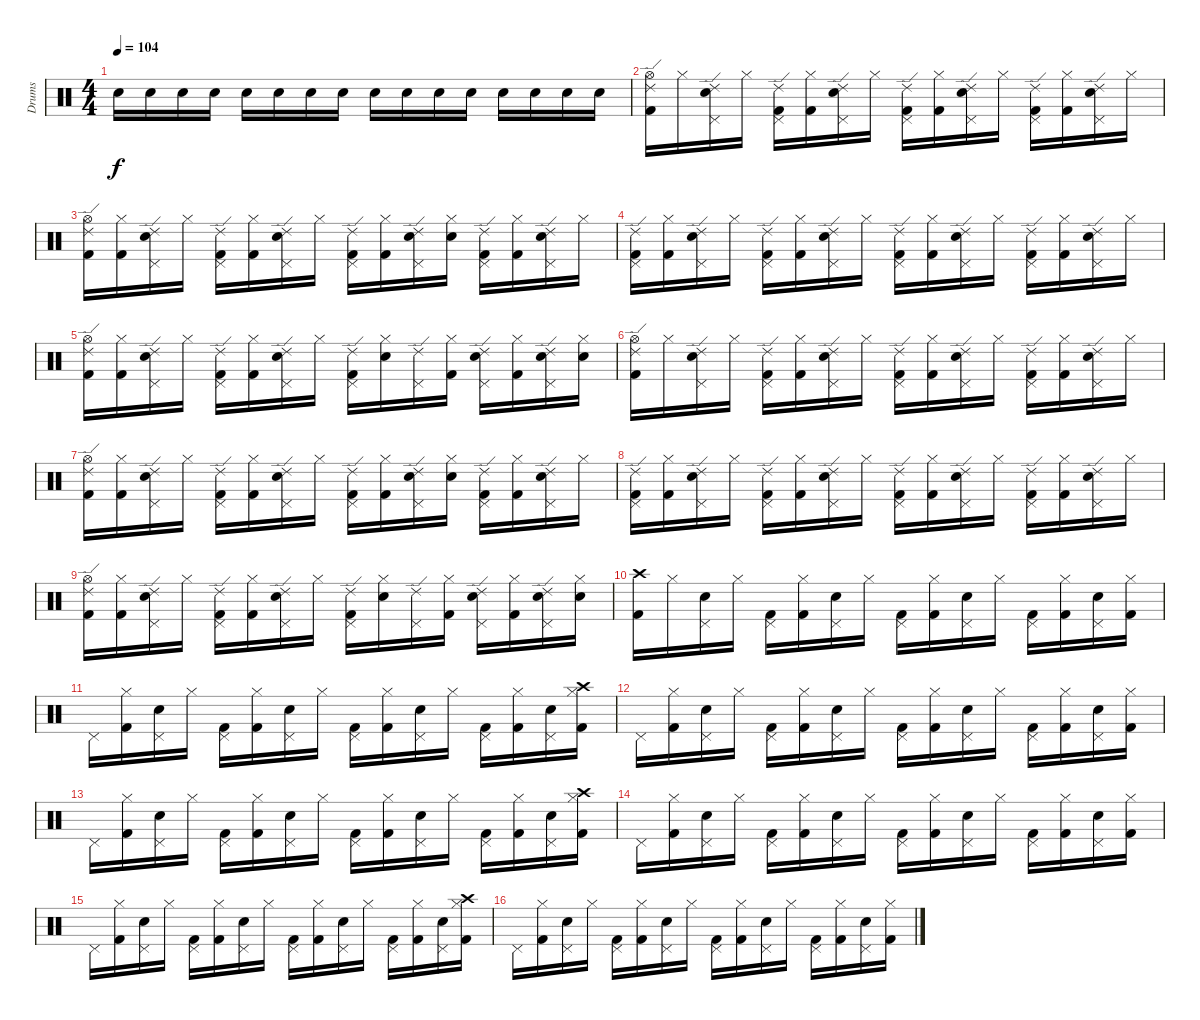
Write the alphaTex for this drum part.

\track ("Drums" "Drums") {instrument percussion}
\staff {score}
\articulation defaults
\ts (4 4)
\tempo 104
\clef neutral
\ks c "Snare (hit) 2".16{dy f} "Snare (hit) 2".16 "Snare (hit) 2".16 "Snare (hit) 2".16 "Snare (hit) 2".16 "Snare (hit) 2".16 "Snare (hit) 2".16 "Snare (hit) 2".16 "Snare (hit) 2".16 "Snare (hit) 2".16 "Snare (hit) 2".16 "Snare (hit) 2".16 "Snare (hit) 2".16 "Snare (hit) 2".16 "Snare (hit) 2".16 "Snare (hit) 2".16
|
("Kick (hit) 2" "Hi-Hat (open)" "Ride (edge) 2").16 "Hi-Hat (closed)".16 ("Snare (hit) 2" "Pedal Hi-Hat (hit)" "Ride (edge) 2").16 "Hi-Hat (closed)".16 ("Kick (hit) 2" "Pedal Hi-Hat (hit)" "Ride (edge) 2").16 ("Kick (hit) 2" "Hi-Hat (closed)").16 ("Snare (hit) 2" "Pedal Hi-Hat (hit)" "Ride (edge) 2").16 "Hi-Hat (closed)".16 ("Kick (hit) 2" "Pedal Hi-Hat (hit)" "Ride (edge) 2").16 ("Kick (hit) 2" "Hi-Hat (closed)").16 ("Snare (hit) 2" "Pedal Hi-Hat (hit)" "Ride (edge) 2").16 "Hi-Hat (closed)".16 ("Kick (hit) 2" "Pedal Hi-Hat (hit)" "Ride (edge) 2").16 ("Kick (hit) 2" "Hi-Hat (closed)").16 ("Snare (hit) 2" "Pedal Hi-Hat (hit)" "Ride (edge) 2").16 "Hi-Hat (closed)".16 |
("Kick (hit) 2" "Hi-Hat (open)" "Ride (edge) 2").16 ("Kick (hit) 2" "Hi-Hat (closed)").16 ("Snare (hit) 2" "Pedal Hi-Hat (hit)" "Ride (edge) 2").16 "Hi-Hat (closed)".16 ("Kick (hit) 2" "Pedal Hi-Hat (hit)" "Ride (edge) 2").16 ("Kick (hit) 2" "Hi-Hat (closed)").16 ("Snare (hit) 2" "Pedal Hi-Hat (hit)" "Ride (edge) 2").16 "Hi-Hat (closed)".16 ("Kick (hit) 2" "Pedal Hi-Hat (hit)" "Ride (edge) 2").16 ("Kick (hit) 2" "Hi-Hat (closed)").16 ("Snare (hit) 2" "Pedal Hi-Hat (hit)" "Ride (edge) 2").16 ("Snare (hit) 2" "Hi-Hat (closed)").16 ("Kick (hit) 2" "Pedal Hi-Hat (hit)" "Ride (edge) 2").16 ("Kick (hit) 2" "Hi-Hat (closed)").16 ("Snare (hit) 2" "Pedal Hi-Hat (hit)" "Ride (edge) 2").16 "Hi-Hat (closed)".16 |
("Kick (hit) 2" "Pedal Hi-Hat (hit)" "Ride (edge) 2").16 ("Kick (hit) 2" "Hi-Hat (closed)").16 ("Snare (hit) 2" "Pedal Hi-Hat (hit)" "Ride (edge) 2").16 "Hi-Hat (closed)".16 ("Kick (hit) 2" "Pedal Hi-Hat (hit)" "Ride (edge) 2").16 ("Kick (hit) 2" "Hi-Hat (closed)").16 ("Snare (hit) 2" "Pedal Hi-Hat (hit)" "Ride (edge) 2").16 "Hi-Hat (closed)".16 ("Kick (hit) 2" "Pedal Hi-Hat (hit)" "Ride (edge) 2").16 ("Kick (hit) 2" "Hi-Hat (closed)").16 ("Snare (hit) 2" "Pedal Hi-Hat (hit)" "Ride (edge) 2").16 "Hi-Hat (closed)".16 ("Kick (hit) 2" "Pedal Hi-Hat (hit)" "Ride (edge) 2").16 ("Kick (hit) 2" "Hi-Hat (closed)").16 ("Snare (hit) 2" "Pedal Hi-Hat (hit)" "Ride (edge) 2").16 "Hi-Hat (closed)".16 |
("Kick (hit) 2" "Hi-Hat (open)" "Ride (edge) 2").16 ("Kick (hit) 2" "Hi-Hat (closed)").16 ("Snare (hit) 2" "Pedal Hi-Hat (hit)" "Ride (edge) 2").16 "Hi-Hat (closed)".16 ("Kick (hit) 2" "Pedal Hi-Hat (hit)" "Ride (edge) 2").16 ("Kick (hit) 2" "Hi-Hat (closed)").16 ("Snare (hit) 2" "Pedal Hi-Hat (hit)" "Ride (edge) 2").16 "Hi-Hat (closed)".16 ("Kick (hit) 2" "Pedal Hi-Hat (hit)" "Ride (edge) 2").16 ("Snare (hit) 2" "Hi-Hat (closed)").16 ("Pedal Hi-Hat (hit)" "Ride (edge) 2").16 ("Kick (hit) 2" "Hi-Hat (closed)").16 ("Snare (hit) 2" "Pedal Hi-Hat (hit)" "Ride (edge) 2").16 ("Kick (hit) 2" "Hi-Hat (closed)").16 ("Snare (hit) 2" "Pedal Hi-Hat (hit)" "Ride (edge) 2").16 ("Snare (hit) 2" "Hi-Hat (closed)").16 |
("Kick (hit) 2" "Hi-Hat (open)" "Ride (edge) 2").16 "Hi-Hat (closed)".16 ("Snare (hit) 2" "Pedal Hi-Hat (hit)" "Ride (edge) 2").16 "Hi-Hat (closed)".16 ("Kick (hit) 2" "Pedal Hi-Hat (hit)" "Ride (edge) 2").16 ("Kick (hit) 2" "Hi-Hat (closed)").16 ("Snare (hit) 2" "Pedal Hi-Hat (hit)" "Ride (edge) 2").16 "Hi-Hat (closed)".16 ("Kick (hit) 2" "Pedal Hi-Hat (hit)" "Ride (edge) 2").16 ("Kick (hit) 2" "Hi-Hat (closed)").16 ("Snare (hit) 2" "Pedal Hi-Hat (hit)" "Ride (edge) 2").16 "Hi-Hat (closed)".16 ("Kick (hit) 2" "Pedal Hi-Hat (hit)" "Ride (edge) 2").16 ("Kick (hit) 2" "Hi-Hat (closed)").16 ("Snare (hit) 2" "Pedal Hi-Hat (hit)" "Ride (edge) 2").16 "Hi-Hat (closed)".16 |
("Kick (hit) 2" "Hi-Hat (open)" "Ride (edge) 2").16 ("Kick (hit) 2" "Hi-Hat (closed)").16 ("Snare (hit) 2" "Pedal Hi-Hat (hit)" "Ride (edge) 2").16 "Hi-Hat (closed)".16 ("Kick (hit) 2" "Pedal Hi-Hat (hit)" "Ride (edge) 2").16 ("Kick (hit) 2" "Hi-Hat (closed)").16 ("Snare (hit) 2" "Pedal Hi-Hat (hit)" "Ride (edge) 2").16 "Hi-Hat (closed)".16 ("Kick (hit) 2" "Pedal Hi-Hat (hit)" "Ride (edge) 2").16 ("Kick (hit) 2" "Hi-Hat (closed)").16 ("Snare (hit) 2" "Pedal Hi-Hat (hit)" "Ride (edge) 2").16 ("Snare (hit) 2" "Hi-Hat (closed)").16 ("Kick (hit) 2" "Pedal Hi-Hat (hit)" "Ride (edge) 2").16 ("Kick (hit) 2" "Hi-Hat (closed)").16 ("Snare (hit) 2" "Pedal Hi-Hat (hit)" "Ride (edge) 2").16 "Hi-Hat (closed)".16 |
("Kick (hit) 2" "Pedal Hi-Hat (hit)" "Ride (edge) 2").16 ("Kick (hit) 2" "Hi-Hat (closed)").16 ("Snare (hit) 2" "Pedal Hi-Hat (hit)" "Ride (edge) 2").16 "Hi-Hat (closed)".16 ("Kick (hit) 2" "Pedal Hi-Hat (hit)" "Ride (edge) 2").16 ("Kick (hit) 2" "Hi-Hat (closed)").16 ("Snare (hit) 2" "Pedal Hi-Hat (hit)" "Ride (edge) 2").16 "Hi-Hat (closed)".16 ("Kick (hit) 2" "Pedal Hi-Hat (hit)" "Ride (edge) 2").16 ("Kick (hit) 2" "Hi-Hat (closed)").16 ("Snare (hit) 2" "Pedal Hi-Hat (hit)" "Ride (edge) 2").16 "Hi-Hat (closed)".16 ("Kick (hit) 2" "Pedal Hi-Hat (hit)" "Ride (edge) 2").16 ("Kick (hit) 2" "Hi-Hat (closed)").16 ("Snare (hit) 2" "Pedal Hi-Hat (hit)" "Ride (edge) 2").16 "Hi-Hat (closed)".16 |
("Kick (hit) 2" "Hi-Hat (open)" "Ride (edge) 2").16 ("Kick (hit) 2" "Hi-Hat (closed)").16 ("Snare (hit) 2" "Pedal Hi-Hat (hit)" "Ride (edge) 2").16 "Hi-Hat (closed)".16 ("Kick (hit) 2" "Pedal Hi-Hat (hit)" "Ride (edge) 2").16 ("Kick (hit) 2" "Hi-Hat (closed)").16 ("Snare (hit) 2" "Pedal Hi-Hat (hit)" "Ride (edge) 2").16 "Hi-Hat (closed)".16 ("Kick (hit) 2" "Pedal Hi-Hat (hit)" "Ride (edge) 2").16 ("Snare (hit) 2" "Hi-Hat (closed)").16 ("Pedal Hi-Hat (hit)" "Ride (edge) 2").16 ("Kick (hit) 2" "Hi-Hat (closed)").16 ("Snare (hit) 2" "Pedal Hi-Hat (hit)" "Ride (edge) 2").16 ("Kick (hit) 2" "Hi-Hat (closed)").16 ("Snare (hit) 2" "Pedal Hi-Hat (hit)" "Ride (edge) 2").16 ("Snare (hit) 2" "Hi-Hat (closed)").16 |
("Kick (hit) 2" "Crash high (hit)").16 "Hi-Hat (closed)".16 ("Snare (hit) 2" "Pedal Hi-Hat (hit)").16 "Hi-Hat (closed)".16 ("Kick (hit) 2" "Pedal Hi-Hat (hit)").16 ("Kick (hit) 2" "Hi-Hat (closed)").16 ("Snare (hit) 2" "Pedal Hi-Hat (hit)").16 "Hi-Hat (closed)".16 ("Kick (hit) 2" "Pedal Hi-Hat (hit)").16 ("Kick (hit) 2" "Hi-Hat (closed)").16 ("Snare (hit) 2" "Pedal Hi-Hat (hit)").16 "Hi-Hat (closed)".16 ("Kick (hit) 2" "Pedal Hi-Hat (hit)").16 ("Kick (hit) 2" "Hi-Hat (closed)").16 ("Snare (hit) 2" "Pedal Hi-Hat (hit)").16 ("Kick (hit) 2" "Hi-Hat (closed)").16 |
"Pedal Hi-Hat (hit)".16 ("Kick (hit) 2" "Hi-Hat (closed)").16 ("Snare (hit) 2" "Pedal Hi-Hat (hit)").16 "Hi-Hat (closed)".16 ("Kick (hit) 2" "Pedal Hi-Hat (hit)").16 ("Kick (hit) 2" "Hi-Hat (closed)").16 ("Snare (hit) 2" "Pedal Hi-Hat (hit)").16 "Hi-Hat (closed)".16 ("Kick (hit) 2" "Pedal Hi-Hat (hit)").16 ("Kick (hit) 2" "Hi-Hat (closed)").16 ("Snare (hit) 2" "Pedal Hi-Hat (hit)").16 "Hi-Hat (closed)".16 ("Kick (hit) 2" "Pedal Hi-Hat (hit)").16 ("Kick (hit) 2" "Hi-Hat (closed)").16 ("Snare (hit) 2" "Pedal Hi-Hat (hit)").16 ("Kick (hit) 2" "Hi-Hat (closed)" "Crash high (hit)").16 |
"Pedal Hi-Hat (hit)".16 ("Kick (hit) 2" "Hi-Hat (closed)").16 ("Snare (hit) 2" "Pedal Hi-Hat (hit)").16 "Hi-Hat (closed)".16 ("Kick (hit) 2" "Pedal Hi-Hat (hit)").16 ("Kick (hit) 2" "Hi-Hat (closed)").16 ("Snare (hit) 2" "Pedal Hi-Hat (hit)").16 "Hi-Hat (closed)".16 ("Kick (hit) 2" "Pedal Hi-Hat (hit)").16 ("Kick (hit) 2" "Hi-Hat (closed)").16 ("Snare (hit) 2" "Pedal Hi-Hat (hit)").16 "Hi-Hat (closed)".16 ("Kick (hit) 2" "Pedal Hi-Hat (hit)").16 ("Kick (hit) 2" "Hi-Hat (closed)").16 ("Snare (hit) 2" "Pedal Hi-Hat (hit)").16 ("Kick (hit) 2" "Hi-Hat (closed)").16 |
"Pedal Hi-Hat (hit)".16 ("Kick (hit) 2" "Hi-Hat (closed)").16 ("Snare (hit) 2" "Pedal Hi-Hat (hit)").16 "Hi-Hat (closed)".16 ("Kick (hit) 2" "Pedal Hi-Hat (hit)").16 ("Kick (hit) 2" "Hi-Hat (closed)").16 ("Snare (hit) 2" "Pedal Hi-Hat (hit)").16 "Hi-Hat (closed)".16 ("Kick (hit) 2" "Pedal Hi-Hat (hit)").16 ("Kick (hit) 2" "Hi-Hat (closed)").16 ("Snare (hit) 2" "Pedal Hi-Hat (hit)").16 "Hi-Hat (closed)".16 ("Kick (hit) 2" "Pedal Hi-Hat (hit)").16 ("Kick (hit) 2" "Hi-Hat (closed)").16 ("Snare (hit) 2" "Pedal Hi-Hat (hit)").16 ("Kick (hit) 2" "Hi-Hat (closed)" "Crash high (hit)").16 |
"Pedal Hi-Hat (hit)".16 ("Kick (hit) 2" "Hi-Hat (closed)").16 ("Snare (hit) 2" "Pedal Hi-Hat (hit)").16 "Hi-Hat (closed)".16 ("Kick (hit) 2" "Pedal Hi-Hat (hit)").16 ("Kick (hit) 2" "Hi-Hat (closed)").16 ("Snare (hit) 2" "Pedal Hi-Hat (hit)").16 "Hi-Hat (closed)".16 ("Kick (hit) 2" "Pedal Hi-Hat (hit)").16 ("Kick (hit) 2" "Hi-Hat (closed)").16 ("Snare (hit) 2" "Pedal Hi-Hat (hit)").16 "Hi-Hat (closed)".16 ("Kick (hit) 2" "Pedal Hi-Hat (hit)").16 ("Kick (hit) 2" "Hi-Hat (closed)").16 ("Snare (hit) 2" "Pedal Hi-Hat (hit)").16 ("Kick (hit) 2" "Hi-Hat (closed)").16 |
"Pedal Hi-Hat (hit)".16 ("Kick (hit) 2" "Hi-Hat (closed)").16 ("Snare (hit) 2" "Pedal Hi-Hat (hit)").16 "Hi-Hat (closed)".16 ("Kick (hit) 2" "Pedal Hi-Hat (hit)").16 ("Kick (hit) 2" "Hi-Hat (closed)").16 ("Snare (hit) 2" "Pedal Hi-Hat (hit)").16 "Hi-Hat (closed)".16 ("Kick (hit) 2" "Pedal Hi-Hat (hit)").16 ("Kick (hit) 2" "Hi-Hat (closed)").16 ("Snare (hit) 2" "Pedal Hi-Hat (hit)").16 "Hi-Hat (closed)".16 ("Kick (hit) 2" "Pedal Hi-Hat (hit)").16 ("Kick (hit) 2" "Hi-Hat (closed)").16 ("Snare (hit) 2" "Pedal Hi-Hat (hit)").16 ("Kick (hit) 2" "Hi-Hat (closed)" "Crash high (hit)").16 |
"Pedal Hi-Hat (hit)".16 ("Kick (hit) 2" "Hi-Hat (closed)").16 ("Snare (hit) 2" "Pedal Hi-Hat (hit)").16 "Hi-Hat (closed)".16 ("Kick (hit) 2" "Pedal Hi-Hat (hit)").16 ("Kick (hit) 2" "Hi-Hat (closed)").16 ("Snare (hit) 2" "Pedal Hi-Hat (hit)").16 "Hi-Hat (closed)".16 ("Kick (hit) 2" "Pedal Hi-Hat (hit)").16 ("Kick (hit) 2" "Hi-Hat (closed)").16 ("Snare (hit) 2" "Pedal Hi-Hat (hit)").16 "Hi-Hat (closed)".16 ("Kick (hit) 2" "Pedal Hi-Hat (hit)").16 ("Kick (hit) 2" "Hi-Hat (closed)").16 ("Snare (hit) 2" "Pedal Hi-Hat (hit)").16 ("Kick (hit) 2" "Hi-Hat (closed)").16
